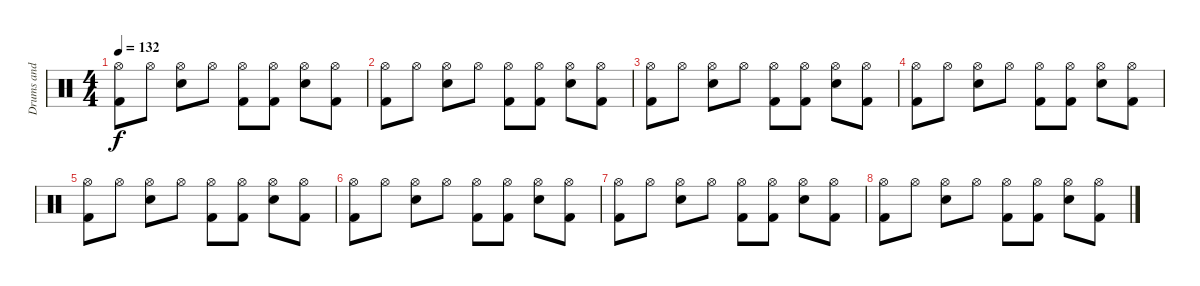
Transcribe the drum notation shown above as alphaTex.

\track ("Drums and Percussion" "Drums and ") {instrument percussion}
\staff {score}
\articulation defaults
\ts (4 4)
\tempo 132
\clef neutral
\ks c
("Hi-Hat (open)" "Kick (hit) 2").8{dy f} "Hi-Hat (open)".8 ("Hi-Hat (open)" "Snare (hit) 2").8 "Hi-Hat (open)".8 ("Hi-Hat (open)" "Kick (hit) 2").8 ("Hi-Hat (open)" "Kick (hit) 2").8 ("Hi-Hat (open)" "Snare (hit) 2").8 ("Hi-Hat (open)" "Kick (hit) 2").8 |
("Hi-Hat (open)" "Kick (hit) 2").8 "Hi-Hat (open)".8 ("Hi-Hat (open)" "Snare (hit) 2").8 "Hi-Hat (open)".8 ("Hi-Hat (open)" "Kick (hit) 2").8 ("Hi-Hat (open)" "Kick (hit) 2").8 ("Hi-Hat (open)" "Snare (hit) 2").8 ("Hi-Hat (open)" "Kick (hit) 2").8 |
("Hi-Hat (open)" "Kick (hit) 2").8 "Hi-Hat (open)".8 ("Hi-Hat (open)" "Snare (hit) 2").8 "Hi-Hat (open)".8 ("Hi-Hat (open)" "Kick (hit) 2").8 ("Hi-Hat (open)" "Kick (hit) 2").8 ("Hi-Hat (open)" "Snare (hit) 2").8 ("Hi-Hat (open)" "Kick (hit) 2").8 |
("Hi-Hat (open)" "Kick (hit) 2").8 "Hi-Hat (open)".8 ("Hi-Hat (open)" "Snare (hit) 2").8 "Hi-Hat (open)".8 ("Hi-Hat (open)" "Kick (hit) 2").8 ("Hi-Hat (open)" "Kick (hit) 2").8 ("Hi-Hat (open)" "Snare (hit) 2").8 ("Hi-Hat (open)" "Kick (hit) 2").8 |
("Hi-Hat (open)" "Kick (hit) 2").8{volume 0} "Hi-Hat (open)".8 ("Hi-Hat (open)" "Snare (hit) 2").8 "Hi-Hat (open)".8 ("Hi-Hat (open)" "Kick (hit) 2").8 ("Hi-Hat (open)" "Kick (hit) 2").8 ("Hi-Hat (open)" "Snare (hit) 2").8 ("Hi-Hat (open)" "Kick (hit) 2").8 |
("Hi-Hat (open)" "Kick (hit) 2").8 "Hi-Hat (open)".8 ("Hi-Hat (open)" "Snare (hit) 2").8 "Hi-Hat (open)".8 ("Hi-Hat (open)" "Kick (hit) 2").8 ("Hi-Hat (open)" "Kick (hit) 2").8 ("Hi-Hat (open)" "Snare (hit) 2").8 ("Hi-Hat (open)" "Kick (hit) 2").8 |
("Hi-Hat (open)" "Kick (hit) 2").8 "Hi-Hat (open)".8 ("Hi-Hat (open)" "Snare (hit) 2").8 "Hi-Hat (open)".8 ("Hi-Hat (open)" "Kick (hit) 2").8 ("Hi-Hat (open)" "Kick (hit) 2").8 ("Hi-Hat (open)" "Snare (hit) 2").8 ("Hi-Hat (open)" "Kick (hit) 2").8 |
("Hi-Hat (open)" "Kick (hit) 2").8 "Hi-Hat (open)".8 ("Hi-Hat (open)" "Snare (hit) 2").8 "Hi-Hat (open)".8 ("Hi-Hat (open)" "Kick (hit) 2").8 ("Hi-Hat (open)" "Kick (hit) 2").8 ("Hi-Hat (open)" "Snare (hit) 2").8 ("Hi-Hat (open)" "Kick (hit) 2").8
